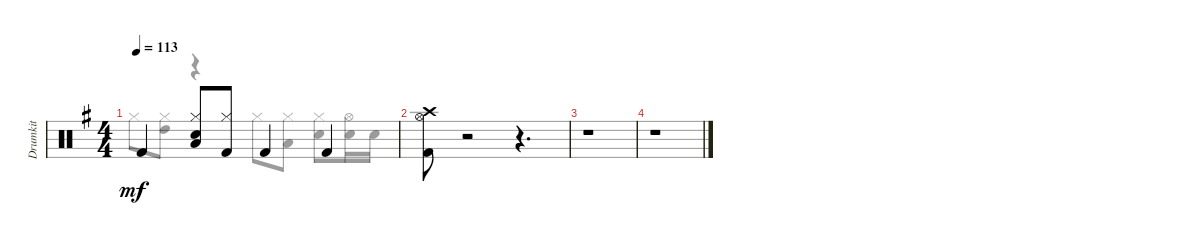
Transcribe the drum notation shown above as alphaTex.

\track ("Drumkit" "Drumkit") {instrument percussion}
\staff {score}
\articulation defaults
\voice
\ts (4 4)
\tempo 113
\clef neutral
\ks eminor "Kick (hit) 2".4{dy mf}
("Low Floor Tom (hit)" "Hi-Hat (closed)" "Snare (hit) 2").8 ("Hi-Hat (closed)" "Kick (hit) 2").8 "Kick (hit) 2".4 "Kick (hit) 2".4 |
("Crash high (hit)" "Hi-Hat (open)" "Kick (hit) 2").8 r.2 r.4{d} |
r.1 |
r.1
\voice
\clef neutral
\ottava regular
\simile none
\ks eminor "Hi-Hat (closed)".8{dy mf}
("Hi-Hat (closed)" "High Tom (hit)").8 r.4 "Hi-Hat (closed)".8 ("Low Floor Tom (hit)" "Hi-Hat (closed)").8 ("Snare (hit) 2" "Hi-Hat (closed)").8 ("Snare (hit) 2" "Hi-Hat (open)").16 "Snare (hit) 2".16 |
|
|
